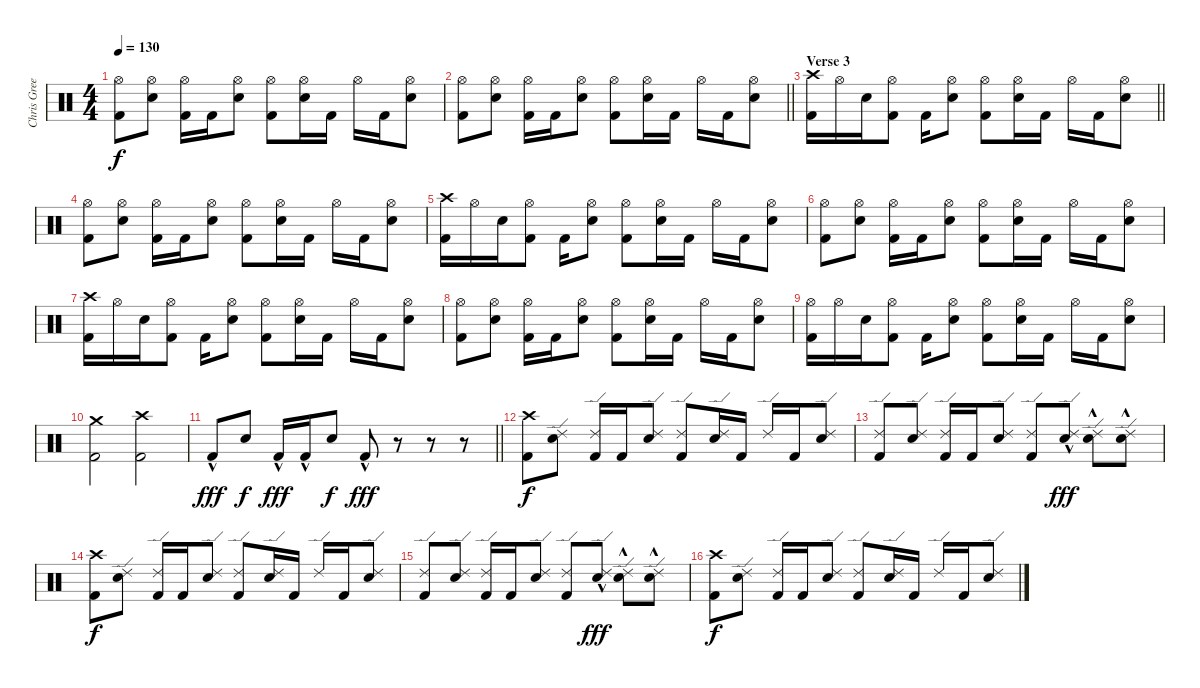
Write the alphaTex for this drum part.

\track ("Chris Greer - Drums" "Chris Gree") {instrument percussion}
\staff {score}
\articulation defaults
\ts (4 4)
\tempo 130
\clef neutral
\ks c
("Hi-Hat (open)" "Kick (hit) 2").8{dy f} ("Hi-Hat (open)" "Electric Snare (hit)").8 ("Hi-Hat (open)" "Kick (hit) 2").16 "Kick (hit) 2".16 ("Hi-Hat (open)" "Electric Snare (hit)").8 ("Hi-Hat (open)" "Kick (hit) 2").8 ("Hi-Hat (open)" "Electric Snare (hit)").16 "Kick (hit) 2".16 "Hi-Hat (open)".16 "Kick (hit) 2".16 ("Hi-Hat (open)" "Electric Snare (hit)").8 |
\barLineRight lightlight
("Hi-Hat (open)" "Kick (hit) 2").8 ("Hi-Hat (open)" "Electric Snare (hit)").8 ("Hi-Hat (open)" "Kick (hit) 2").16 "Kick (hit) 2".16 ("Hi-Hat (open)" "Electric Snare (hit)").8 ("Hi-Hat (open)" "Kick (hit) 2").8 ("Hi-Hat (open)" "Electric Snare (hit)").16 "Kick (hit) 2".16 "Hi-Hat (open)".16 "Kick (hit) 2".16 ("Hi-Hat (open)" "Electric Snare (hit)").8 |
\section ("" "Verse 3")
\barLineRight lightlight
("Crash high (hit)" "Kick (hit) 2").16 "Hi-Hat (open)".16 "Electric Snare (hit)".16 ("Hi-Hat (open)" "Kick (hit) 2").8 "Kick (hit) 2".16 ("Hi-Hat (open)" "Electric Snare (hit)").8 ("Hi-Hat (open)" "Kick (hit) 2").8 ("Hi-Hat (open)" "Electric Snare (hit)").16 "Kick (hit) 2".16 "Hi-Hat (open)".16 "Kick (hit) 2".16 ("Hi-Hat (open)" "Electric Snare (hit)").8 |
("Hi-Hat (open)" "Kick (hit) 2").8 ("Hi-Hat (open)" "Electric Snare (hit)").8 ("Hi-Hat (open)" "Kick (hit) 2").16 "Kick (hit) 2".16 ("Hi-Hat (open)" "Electric Snare (hit)").8 ("Hi-Hat (open)" "Kick (hit) 2").8 ("Hi-Hat (open)" "Electric Snare (hit)").16 "Kick (hit) 2".16 "Hi-Hat (open)".16 "Kick (hit) 2".16 ("Hi-Hat (open)" "Electric Snare (hit)").8 |
("Crash high (hit)" "Kick (hit) 2").16 "Hi-Hat (open)".16 "Electric Snare (hit)".16 ("Hi-Hat (open)" "Kick (hit) 2").8 "Kick (hit) 2".16 ("Hi-Hat (open)" "Electric Snare (hit)").8 ("Hi-Hat (open)" "Kick (hit) 2").8 ("Hi-Hat (open)" "Electric Snare (hit)").16 "Kick (hit) 2".16 "Hi-Hat (open)".16 "Kick (hit) 2".16 ("Hi-Hat (open)" "Electric Snare (hit)").8 |
("Hi-Hat (open)" "Kick (hit) 2").8 ("Hi-Hat (open)" "Electric Snare (hit)").8 ("Hi-Hat (open)" "Kick (hit) 2").16 "Kick (hit) 2".16 ("Hi-Hat (open)" "Electric Snare (hit)").8 ("Hi-Hat (open)" "Kick (hit) 2").8 ("Hi-Hat (open)" "Electric Snare (hit)").16 "Kick (hit) 2".16 "Hi-Hat (open)".16 "Kick (hit) 2".16 ("Hi-Hat (open)" "Electric Snare (hit)").8 |
("Crash high (hit)" "Kick (hit) 2").16 "Hi-Hat (open)".16 "Electric Snare (hit)".16 ("Hi-Hat (open)" "Kick (hit) 2").8 "Kick (hit) 2".16 ("Hi-Hat (open)" "Electric Snare (hit)").8 ("Hi-Hat (open)" "Kick (hit) 2").8 ("Hi-Hat (open)" "Electric Snare (hit)").16 "Kick (hit) 2".16 "Hi-Hat (open)".16 "Kick (hit) 2".16 ("Hi-Hat (open)" "Electric Snare (hit)").8 |
("Hi-Hat (open)" "Kick (hit) 2").8 ("Hi-Hat (open)" "Electric Snare (hit)").8 ("Hi-Hat (open)" "Kick (hit) 2").16 "Kick (hit) 2".16 ("Hi-Hat (open)" "Electric Snare (hit)").8 ("Hi-Hat (open)" "Kick (hit) 2").8 ("Hi-Hat (open)" "Electric Snare (hit)").16 "Kick (hit) 2".16 "Hi-Hat (open)".16 "Kick (hit) 2".16 ("Hi-Hat (open)" "Electric Snare (hit)").8 |
("Hi-Hat (open)" "Kick (hit) 2").16 "Hi-Hat (open)".16 "Electric Snare (hit)".16 ("Hi-Hat (open)" "Kick (hit) 2").8 "Kick (hit) 2".16 ("Hi-Hat (open)" "Electric Snare (hit)").8 ("Hi-Hat (open)" "Kick (hit) 2").8 ("Hi-Hat (open)" "Electric Snare (hit)").16 "Kick (hit) 2".16 "Hi-Hat (open)".16 "Kick (hit) 2".16 ("Hi-Hat (open)" "Electric Snare (hit)").8 |
("Crash medium (hit)" "Kick (hit) 2").2 ("Crash high (hit)" "Kick (hit) 2").2 |
\barLineRight lightlight "Kick (hit) 2"{hac}.8{dy fff} "Electric Snare (hit)".8{dy f} "Kick (hit) 2"{hac}.16{dy fff} "Kick (hit) 2"{hac}.16 "Electric Snare (hit)".8{dy f} "Kick (hit) 2"{hac}.8{dy fff}
r.8 r.8 r.8 |
("Crash high (hit)" "Kick (hit) 2").8{dy f} ("Ride (edge) 2" "Electric Snare (hit)").8 ("Ride (edge) 2" "Kick (hit) 2").16 "Kick (hit) 2".16 ("Ride (edge) 2" "Electric Snare (hit)").8 ("Ride (edge) 2" "Kick (hit) 2").8 ("Ride (edge) 2" "Electric Snare (hit)").16 "Kick (hit) 2".16 "Ride (edge) 2".16 "Kick (hit) 2".16 ("Ride (edge) 2" "Electric Snare (hit)").8 |
("Ride (edge) 2" "Kick (hit) 2").8 ("Ride (edge) 2" "Electric Snare (hit)").8 ("Ride (edge) 2" "Kick (hit) 2").16 "Kick (hit) 2".16 ("Ride (edge) 2" "Electric Snare (hit)").8 ("Ride (edge) 2" "Kick (hit) 2").8 ("Ride (edge) 2" "Electric Snare (hit)"{hac}).8{dy fff} ("Ride (edge) 2" "Electric Snare (hit)"{hac}).8 ("Ride (edge) 2" "Electric Snare (hit)"{hac}).8 |
("Crash high (hit)" "Kick (hit) 2").8{dy f} ("Ride (edge) 2" "Electric Snare (hit)").8 ("Ride (edge) 2" "Kick (hit) 2").16 "Kick (hit) 2".16 ("Ride (edge) 2" "Electric Snare (hit)").8 ("Ride (edge) 2" "Kick (hit) 2").8 ("Ride (edge) 2" "Electric Snare (hit)").16 "Kick (hit) 2".16 "Ride (edge) 2".16 "Kick (hit) 2".16 ("Ride (edge) 2" "Electric Snare (hit)").8 |
("Ride (edge) 2" "Kick (hit) 2").8 ("Ride (edge) 2" "Electric Snare (hit)").8 ("Ride (edge) 2" "Kick (hit) 2").16 "Kick (hit) 2".16 ("Ride (edge) 2" "Electric Snare (hit)").8 ("Ride (edge) 2" "Kick (hit) 2").8 ("Ride (edge) 2" "Electric Snare (hit)"{hac}).8{dy fff} ("Ride (edge) 2" "Electric Snare (hit)"{hac}).8 ("Ride (edge) 2" "Electric Snare (hit)"{hac}).8 |
("Crash high (hit)" "Kick (hit) 2").8{dy f} ("Ride (edge) 2" "Electric Snare (hit)").8 ("Ride (edge) 2" "Kick (hit) 2").16 "Kick (hit) 2".16 ("Ride (edge) 2" "Electric Snare (hit)").8 ("Ride (edge) 2" "Kick (hit) 2").8 ("Ride (edge) 2" "Electric Snare (hit)").16 "Kick (hit) 2".16 "Ride (edge) 2".16 "Kick (hit) 2".16 ("Ride (edge) 2" "Electric Snare (hit)").8
